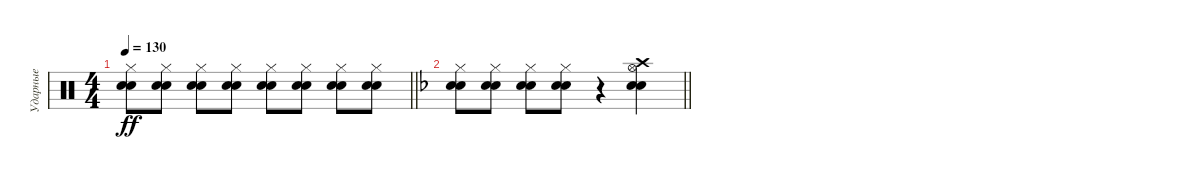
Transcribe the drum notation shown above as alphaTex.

\track ("Ударные" "Ударные") {instrument percussion}
\staff {score}
\articulation defaults
\ts (4 4)
\tempo 130
\clef neutral
\barLineRight lightlight
\ks c
("Hi-Hat (closed)" "Snare (hit) 2" "Electric Snare (hit)").8{dy ff} ("Hi-Hat (closed)" "Snare (hit) 2" "Electric Snare (hit)").8 ("Hi-Hat (closed)" "Snare (hit) 2" "Electric Snare (hit)").8 ("Hi-Hat (closed)" "Snare (hit) 2" "Electric Snare (hit)").8 ("Hi-Hat (closed)" "Snare (hit) 2" "Electric Snare (hit)").8 ("Hi-Hat (closed)" "Snare (hit) 2" "Electric Snare (hit)").8 ("Hi-Hat (closed)" "Snare (hit) 2" "Electric Snare (hit)").8 ("Hi-Hat (closed)" "Snare (hit) 2" "Electric Snare (hit)").8 |
\barLineRight lightlight
\ks f
("Hi-Hat (closed)" "Snare (hit) 2" "Electric Snare (hit)").8 ("Hi-Hat (closed)" "Snare (hit) 2" "Electric Snare (hit)").8 ("Hi-Hat (closed)" "Snare (hit) 2" "Electric Snare (hit)").8 ("Hi-Hat (closed)" "Snare (hit) 2" "Electric Snare (hit)").8 r.4 ("Hi-Hat (open)" "Snare (hit) 2" "Electric Snare (hit)" "Crash high (hit)").4
